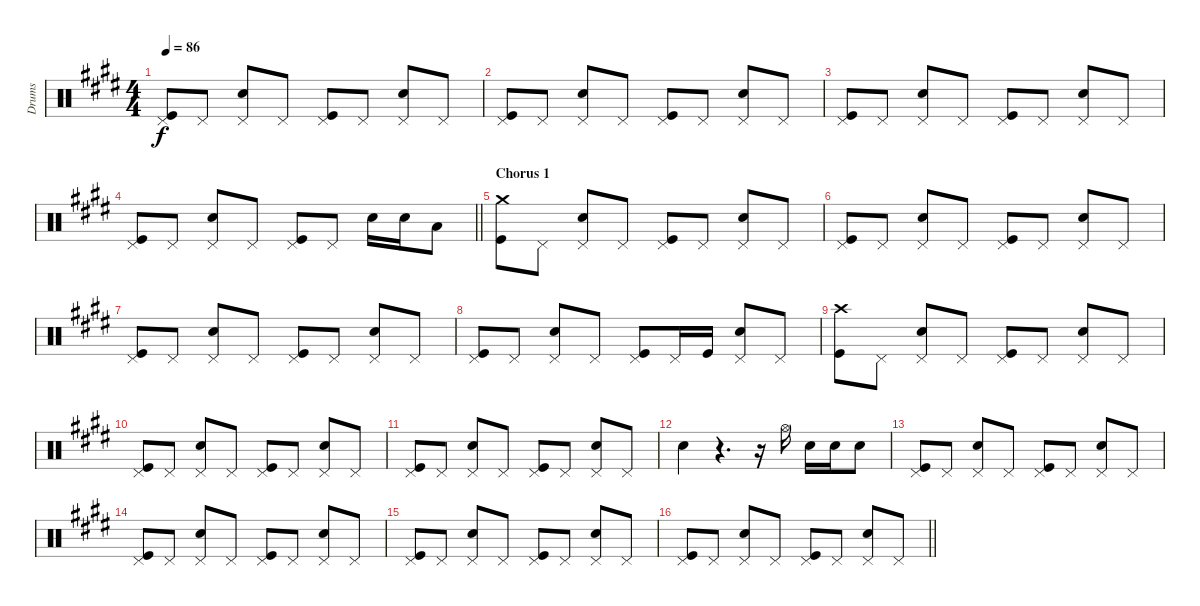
\track ("Drums" "Drums") {instrument percussion}
\staff {score}
\articulation defaults
\ts (4 4)
\tempo 86
\clef neutral
\ks e
("Pedal Hi-Hat (hit)" "Kick (hit)").8{dy f} "Pedal Hi-Hat (hit)".8 ("Pedal Hi-Hat (hit)" "Snare (hit) 2").8 "Pedal Hi-Hat (hit)".8 ("Pedal Hi-Hat (hit)" "Kick (hit)").8 "Pedal Hi-Hat (hit)".8 ("Pedal Hi-Hat (hit)" "Snare (hit) 2").8 "Pedal Hi-Hat (hit)".8 |
("Pedal Hi-Hat (hit)" "Kick (hit)").8 "Pedal Hi-Hat (hit)".8 ("Pedal Hi-Hat (hit)" "Snare (hit) 2").8 "Pedal Hi-Hat (hit)".8 ("Pedal Hi-Hat (hit)" "Kick (hit)").8 "Pedal Hi-Hat (hit)".8 ("Pedal Hi-Hat (hit)" "Snare (hit) 2").8 "Pedal Hi-Hat (hit)".8 |
("Pedal Hi-Hat (hit)" "Kick (hit)").8 "Pedal Hi-Hat (hit)".8 ("Pedal Hi-Hat (hit)" "Snare (hit) 2").8 "Pedal Hi-Hat (hit)".8 ("Pedal Hi-Hat (hit)" "Kick (hit)").8 "Pedal Hi-Hat (hit)".8 ("Pedal Hi-Hat (hit)" "Snare (hit) 2").8 "Pedal Hi-Hat (hit)".8 |
\barLineRight lightlight
("Pedal Hi-Hat (hit)" "Kick (hit)").8 "Pedal Hi-Hat (hit)".8 ("Pedal Hi-Hat (hit)" "Snare (hit) 2").8 "Pedal Hi-Hat (hit)".8 ("Pedal Hi-Hat (hit)" "Kick (hit)").8 "Pedal Hi-Hat (hit)".8 "Snare (hit) 2".16 "Snare (hit) 2".16 "Low Tom (hit)".8 |
\section ("" "Chorus 1")
("Crash medium (hit)" "Kick (hit)").8 "Pedal Hi-Hat (hit)".8 ("Pedal Hi-Hat (hit)" "Snare (hit) 2").8 "Pedal Hi-Hat (hit)".8 ("Pedal Hi-Hat (hit)" "Kick (hit)").8 "Pedal Hi-Hat (hit)".8 ("Pedal Hi-Hat (hit)" "Snare (hit) 2").8 "Pedal Hi-Hat (hit)".8 |
("Pedal Hi-Hat (hit)" "Kick (hit)").8 "Pedal Hi-Hat (hit)".8 ("Pedal Hi-Hat (hit)" "Snare (hit) 2").8 "Pedal Hi-Hat (hit)".8 ("Pedal Hi-Hat (hit)" "Kick (hit)").8 "Pedal Hi-Hat (hit)".8 ("Pedal Hi-Hat (hit)" "Snare (hit) 2").8 "Pedal Hi-Hat (hit)".8 |
("Pedal Hi-Hat (hit)" "Kick (hit)").8 "Pedal Hi-Hat (hit)".8 ("Pedal Hi-Hat (hit)" "Snare (hit) 2").8 "Pedal Hi-Hat (hit)".8 ("Pedal Hi-Hat (hit)" "Kick (hit)").8 "Pedal Hi-Hat (hit)".8 ("Pedal Hi-Hat (hit)" "Snare (hit) 2").8 "Pedal Hi-Hat (hit)".8 |
("Pedal Hi-Hat (hit)" "Kick (hit)").8 "Pedal Hi-Hat (hit)".8 ("Pedal Hi-Hat (hit)" "Snare (hit) 2").8 "Pedal Hi-Hat (hit)".8 ("Pedal Hi-Hat (hit)" "Kick (hit)").8 "Pedal Hi-Hat (hit)".16 "Kick (hit)".16 ("Pedal Hi-Hat (hit)" "Snare (hit) 2").8 "Pedal Hi-Hat (hit)".8 |
("Crash high (hit)" "Kick (hit)").8 "Pedal Hi-Hat (hit)".8 ("Pedal Hi-Hat (hit)" "Snare (hit) 2").8 "Pedal Hi-Hat (hit)".8 ("Pedal Hi-Hat (hit)" "Kick (hit)").8 "Pedal Hi-Hat (hit)".8 ("Pedal Hi-Hat (hit)" "Snare (hit) 2").8 "Pedal Hi-Hat (hit)".8 |
("Pedal Hi-Hat (hit)" "Kick (hit)").8 "Pedal Hi-Hat (hit)".8 ("Pedal Hi-Hat (hit)" "Snare (hit) 2").8 "Pedal Hi-Hat (hit)".8 ("Pedal Hi-Hat (hit)" "Kick (hit)").8 "Pedal Hi-Hat (hit)".8 ("Pedal Hi-Hat (hit)" "Snare (hit) 2").8 "Pedal Hi-Hat (hit)".8 |
("Pedal Hi-Hat (hit)" "Kick (hit)").8 "Pedal Hi-Hat (hit)".8 ("Pedal Hi-Hat (hit)" "Snare (hit) 2").8 "Pedal Hi-Hat (hit)".8 ("Pedal Hi-Hat (hit)" "Kick (hit)").8 "Pedal Hi-Hat (hit)".8 ("Pedal Hi-Hat (hit)" "Snare (hit) 2").8 "Pedal Hi-Hat (hit)".8 |
"Snare (hit) 2".4 r.4{d} r.16 "Hi-Hat (open)".16 "Snare (hit) 2".16 "Snare (hit) 2".16 "Snare (hit) 2".8 |
("Pedal Hi-Hat (hit)" "Kick (hit)").8 "Pedal Hi-Hat (hit)".8 ("Pedal Hi-Hat (hit)" "Snare (hit) 2").8 "Pedal Hi-Hat (hit)".8 ("Pedal Hi-Hat (hit)" "Kick (hit)").8 "Pedal Hi-Hat (hit)".8 ("Pedal Hi-Hat (hit)" "Snare (hit) 2").8 "Pedal Hi-Hat (hit)".8 |
("Pedal Hi-Hat (hit)" "Kick (hit)").8 "Pedal Hi-Hat (hit)".8 ("Pedal Hi-Hat (hit)" "Snare (hit) 2").8 "Pedal Hi-Hat (hit)".8 ("Pedal Hi-Hat (hit)" "Kick (hit)").8 "Pedal Hi-Hat (hit)".8 ("Pedal Hi-Hat (hit)" "Snare (hit) 2").8 "Pedal Hi-Hat (hit)".8 |
("Pedal Hi-Hat (hit)" "Kick (hit)").8 "Pedal Hi-Hat (hit)".8 ("Pedal Hi-Hat (hit)" "Snare (hit) 2").8 "Pedal Hi-Hat (hit)".8 ("Pedal Hi-Hat (hit)" "Kick (hit)").8 "Pedal Hi-Hat (hit)".8 ("Pedal Hi-Hat (hit)" "Snare (hit) 2").8 "Pedal Hi-Hat (hit)".8 |
\barLineRight lightlight
("Pedal Hi-Hat (hit)" "Kick (hit)").8 "Pedal Hi-Hat (hit)".8 ("Pedal Hi-Hat (hit)" "Snare (hit) 2").8 "Pedal Hi-Hat (hit)".8 ("Pedal Hi-Hat (hit)" "Kick (hit)").8 "Pedal Hi-Hat (hit)".8 ("Pedal Hi-Hat (hit)" "Snare (hit) 2").8 "Pedal Hi-Hat (hit)".8
